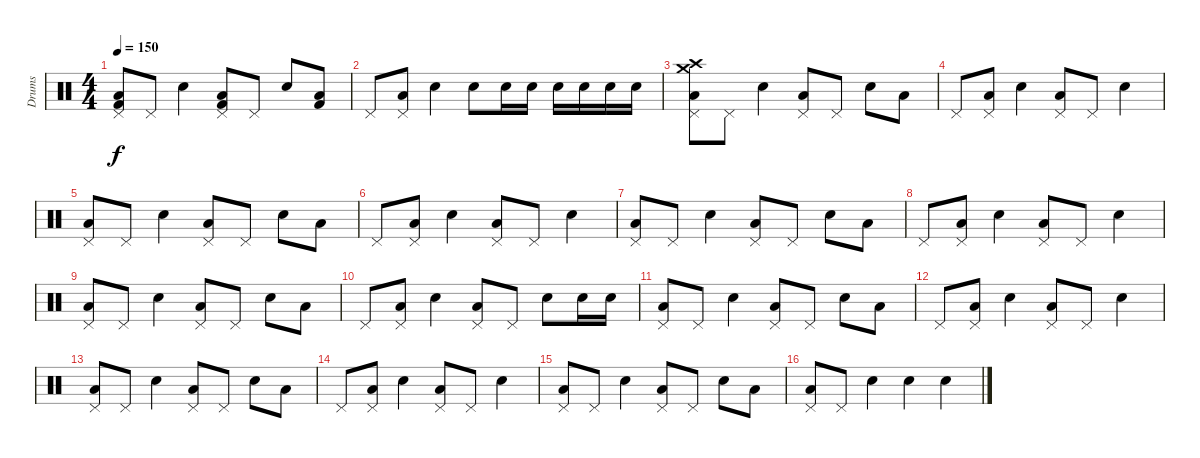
\track ("Drums" "Drums") {instrument percussion}
\staff {score}
\articulation defaults
\ts (4 4)
\tempo 150
\clef neutral
\ks c
("Pedal Hi-Hat (hit)" "Low Floor Tom (hit)" "Kick (hit) 2").8{dy f} "Pedal Hi-Hat (hit)".8 "Snare (hit) 2".4 ("Pedal Hi-Hat (hit)" "Low Floor Tom (hit)" "Kick (hit) 2").8 "Pedal Hi-Hat (hit)".8 "Snare (hit) 2".8 ("Low Floor Tom (hit)" "Kick (hit) 2").8 |
"Pedal Hi-Hat (hit)".8 ("Low Floor Tom (hit)" "Pedal Hi-Hat (hit)").8 "Snare (hit) 2".4 "Snare (hit) 2".8 "Snare (hit) 2".16 "Snare (hit) 2".16 "Snare (hit) 2".16 "Snare (hit) 2".16 "Snare (hit) 2".16 "Snare (hit) 2".16 |
("Low Floor Tom (hit)" "Pedal Hi-Hat (hit)" "Crash medium (hit)" "Crash high (hit)").8 "Pedal Hi-Hat (hit)".8 "Snare (hit) 2".4 ("Low Floor Tom (hit)" "Pedal Hi-Hat (hit)").8 "Pedal Hi-Hat (hit)".8 "Snare (hit) 2".8 "Low Floor Tom (hit)".8 |
"Pedal Hi-Hat (hit)".8 ("Low Floor Tom (hit)" "Pedal Hi-Hat (hit)").8 "Snare (hit) 2".4 ("Low Floor Tom (hit)" "Pedal Hi-Hat (hit)").8 "Pedal Hi-Hat (hit)".8 "Snare (hit) 2".4 |
("Low Floor Tom (hit)" "Pedal Hi-Hat (hit)").8 "Pedal Hi-Hat (hit)".8 "Snare (hit) 2".4 ("Low Floor Tom (hit)" "Pedal Hi-Hat (hit)").8 "Pedal Hi-Hat (hit)".8 "Snare (hit) 2".8 "Low Floor Tom (hit)".8 |
"Pedal Hi-Hat (hit)".8 ("Low Floor Tom (hit)" "Pedal Hi-Hat (hit)").8 "Snare (hit) 2".4 ("Low Floor Tom (hit)" "Pedal Hi-Hat (hit)").8 "Pedal Hi-Hat (hit)".8 "Snare (hit) 2".4 |
("Low Floor Tom (hit)" "Pedal Hi-Hat (hit)").8 "Pedal Hi-Hat (hit)".8 "Snare (hit) 2".4 ("Low Floor Tom (hit)" "Pedal Hi-Hat (hit)").8 "Pedal Hi-Hat (hit)".8 "Snare (hit) 2".8 "Low Floor Tom (hit)".8 |
"Pedal Hi-Hat (hit)".8 ("Low Floor Tom (hit)" "Pedal Hi-Hat (hit)").8 "Snare (hit) 2".4 ("Low Floor Tom (hit)" "Pedal Hi-Hat (hit)").8 "Pedal Hi-Hat (hit)".8 "Snare (hit) 2".4 |
("Low Floor Tom (hit)" "Pedal Hi-Hat (hit)").8 "Pedal Hi-Hat (hit)".8 "Snare (hit) 2".4 ("Low Floor Tom (hit)" "Pedal Hi-Hat (hit)").8 "Pedal Hi-Hat (hit)".8 "Snare (hit) 2".8 "Low Floor Tom (hit)".8 |
"Pedal Hi-Hat (hit)".8 ("Low Floor Tom (hit)" "Pedal Hi-Hat (hit)").8 "Snare (hit) 2".4 ("Low Floor Tom (hit)" "Pedal Hi-Hat (hit)").8 "Pedal Hi-Hat (hit)".8 "Snare (hit) 2".8 "Snare (hit) 2".16 "Snare (hit) 2".16 |
("Low Floor Tom (hit)" "Pedal Hi-Hat (hit)").8 "Pedal Hi-Hat (hit)".8 "Snare (hit) 2".4 ("Low Floor Tom (hit)" "Pedal Hi-Hat (hit)").8 "Pedal Hi-Hat (hit)".8 "Snare (hit) 2".8 "Low Floor Tom (hit)".8 |
"Pedal Hi-Hat (hit)".8 ("Low Floor Tom (hit)" "Pedal Hi-Hat (hit)").8 "Snare (hit) 2".4 ("Low Floor Tom (hit)" "Pedal Hi-Hat (hit)").8 "Pedal Hi-Hat (hit)".8 "Snare (hit) 2".4 |
("Low Floor Tom (hit)" "Pedal Hi-Hat (hit)").8 "Pedal Hi-Hat (hit)".8 "Snare (hit) 2".4 ("Low Floor Tom (hit)" "Pedal Hi-Hat (hit)").8 "Pedal Hi-Hat (hit)".8 "Snare (hit) 2".8 "Low Floor Tom (hit)".8 |
"Pedal Hi-Hat (hit)".8 ("Low Floor Tom (hit)" "Pedal Hi-Hat (hit)").8 "Snare (hit) 2".4 ("Low Floor Tom (hit)" "Pedal Hi-Hat (hit)").8 "Pedal Hi-Hat (hit)".8 "Snare (hit) 2".4 |
("Low Floor Tom (hit)" "Pedal Hi-Hat (hit)").8 "Pedal Hi-Hat (hit)".8 "Snare (hit) 2".4 ("Low Floor Tom (hit)" "Pedal Hi-Hat (hit)").8 "Pedal Hi-Hat (hit)".8 "Snare (hit) 2".8 "Low Floor Tom (hit)".8 |
("Low Floor Tom (hit)" "Pedal Hi-Hat (hit)").8 "Pedal Hi-Hat (hit)".8 "Snare (hit) 2".4 "Snare (hit) 2".4 "Snare (hit) 2".4
